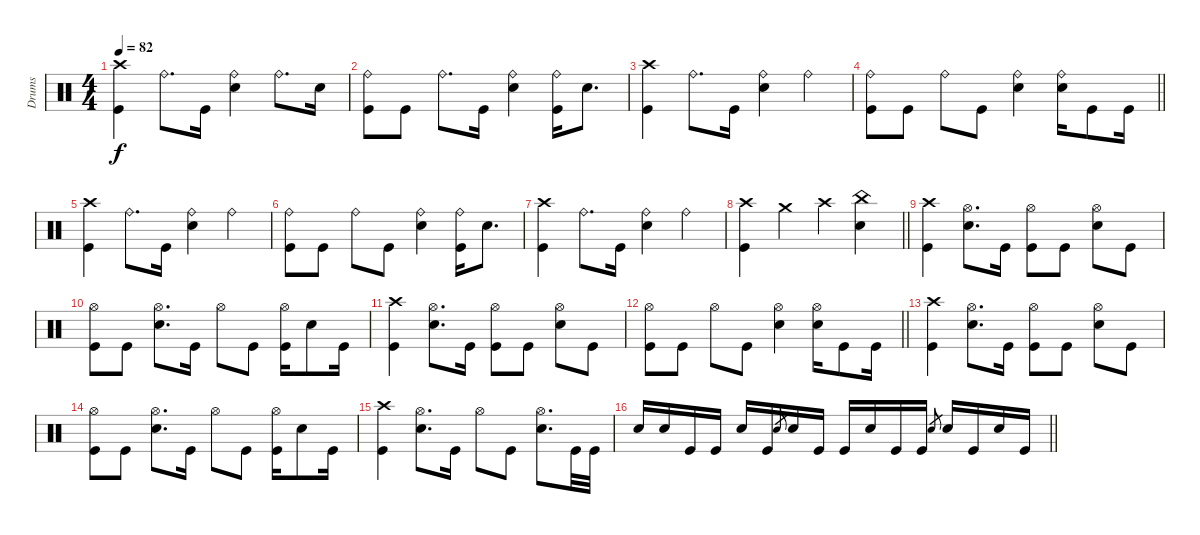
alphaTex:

\track ("Drums" "Drums") {instrument percussion}
\staff
\articulation defaults
\ts (4 4)
\section ("" "")
\tempo 82
\clef neutral
\ks c
("Crash high (hit)" "Kick (hit)").4{dy f} "Ride (bell)".8{d} "Kick (hit)".16 ("Ride (bell)" "Electric Snare (hit)").4 "Ride (bell)".8{d} "Electric Snare (hit)".16 |
("Ride (bell)" "Kick (hit)").8 "Kick (hit)".8 "Ride (bell)".8{d} "Kick (hit)".16 ("Ride (bell)" "Electric Snare (hit)").4 ("Ride (bell)" "Kick (hit)").16 "Electric Snare (hit)".8{d} |
("Crash high (hit)" "Kick (hit)").4 "Ride (bell)".8{d} "Kick (hit)".16 ("Ride (bell)" "Electric Snare (hit)").4 "Ride (bell)".4 |
\barLineRight lightlight
("Ride (bell)" "Kick (hit)").8 "Kick (hit)".8 "Ride (bell)".8 "Kick (hit)".8 ("Ride (bell)" "Electric Snare (hit)").4 ("Ride (bell)" "Electric Snare (hit)").16 "Kick (hit)".8 "Kick (hit)".16 |
("Crash high (hit)" "Kick (hit)").4 "Ride (bell)".8{d} "Kick (hit)".16 ("Ride (bell)" "Electric Snare (hit)").4 "Ride (bell)".4 |
("Ride (bell)" "Kick (hit)").8 "Kick (hit)".8 "Ride (bell)".8 "Kick (hit)".8 ("Ride (bell)" "Electric Snare (hit)").4 ("Ride (bell)" "Kick (hit)").16 "Electric Snare (hit)".8{d} |
("Crash high (hit)" "Kick (hit)").4 "Ride (bell)".8{d} "Kick (hit)".16 ("Ride (bell)" "Electric Snare (hit)").4 "Ride (bell)".4 |
\barLineRight lightlight
("Crash high (hit)" "Kick (hit)").4 "Crash medium (hit)".4 "Crash high (hit)".4 ("China (hit)" "Electric Snare (hit)").4 |
\section ("" "")
("Crash high (hit)" "Kick (hit)").4 ("Hi-Hat (open)" "Electric Snare (hit)").8{d} "Kick (hit)".16 ("Hi-Hat (open)" "Kick (hit)").8 "Kick (hit)".8 ("Hi-Hat (open)" "Electric Snare (hit)").8 "Kick (hit)".8 |
("Hi-Hat (open)" "Kick (hit)").8 "Kick (hit)".8 ("Hi-Hat (open)" "Electric Snare (hit)").8{d} "Kick (hit)".16 "Hi-Hat (open)".8 "Kick (hit)".8 ("Hi-Hat (open)" "Kick (hit)").16 "Electric Snare (hit)".8 "Kick (hit)".16 |
("Crash high (hit)" "Kick (hit)").4 ("Hi-Hat (open)" "Electric Snare (hit)").8{d} "Kick (hit)".16 ("Hi-Hat (open)" "Kick (hit)").8 "Kick (hit)".8 ("Hi-Hat (open)" "Electric Snare (hit)").8 "Kick (hit)".8 |
\barLineRight lightlight
("Hi-Hat (open)" "Kick (hit)").8 "Kick (hit)".8 "Hi-Hat (open)".8 "Kick (hit)".8 ("Hi-Hat (open)" "Electric Snare (hit)").4 ("Hi-Hat (open)" "Electric Snare (hit)").16 "Kick (hit)".8 "Kick (hit)".16 |
("Crash high (hit)" "Kick (hit)").4 ("Hi-Hat (open)" "Electric Snare (hit)").8{d} "Kick (hit)".16 ("Hi-Hat (open)" "Kick (hit)").8 "Kick (hit)".8 ("Hi-Hat (open)" "Electric Snare (hit)").8 "Kick (hit)".8 |
("Hi-Hat (open)" "Kick (hit)").8 "Kick (hit)".8 ("Hi-Hat (open)" "Electric Snare (hit)").8{d} "Kick (hit)".16 "Hi-Hat (open)".8 "Kick (hit)".8 ("Hi-Hat (open)" "Kick (hit)").16 "Electric Snare (hit)".8 "Kick (hit)".16 |
("Crash high (hit)" "Kick (hit)").4 ("Hi-Hat (open)" "Electric Snare (hit)").8{d} "Kick (hit)".16 "Hi-Hat (open)".8 "Kick (hit)".8 ("Hi-Hat (open)" "Electric Snare (hit)").8{d} "Kick (hit)".32 "Kick (hit)".32 |
\barLineRight lightlight "Electric Snare (hit)".16 "Electric Snare (hit)".16 "Kick (hit)".16 "Kick (hit)".16 "Electric Snare (hit)".16 "Kick (hit)".16 "Electric Snare (hit)".8{gr} "Electric Snare (hit)".16 "Kick (hit)".16 "Kick (hit)".16 "Electric Snare (hit)".16 "Kick (hit)".16 "Kick (hit)".16 "Electric Snare (hit)".8{gr} "Electric Snare (hit)".16 "Kick (hit)".16 "Electric Snare (hit)".16 "Kick (hit)".16
